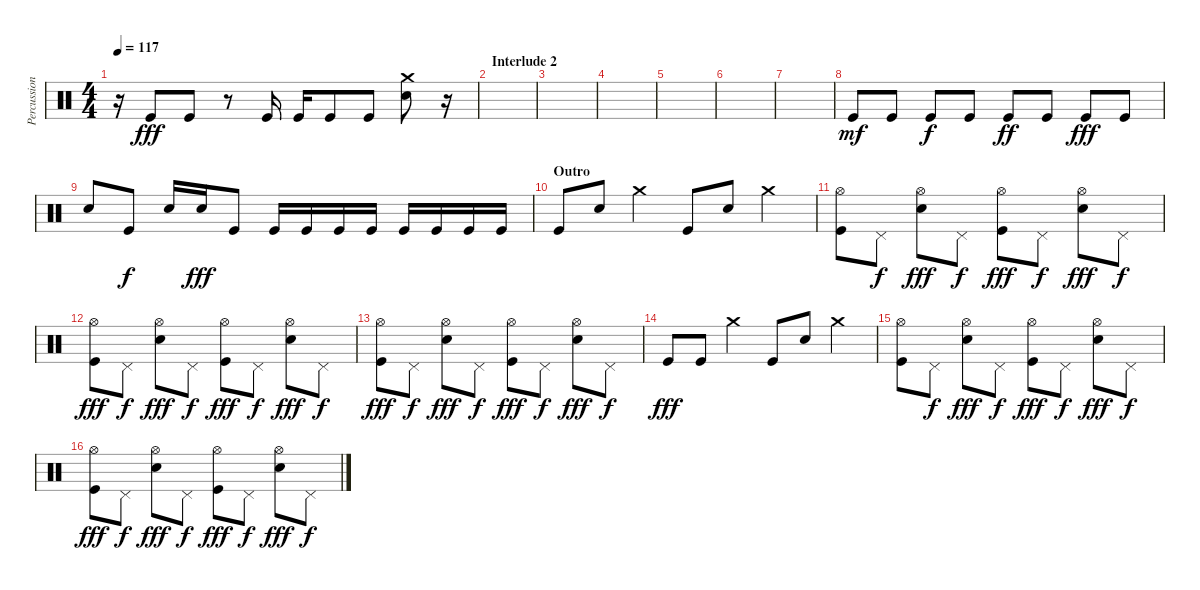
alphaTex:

\track ("Percussion" "Percussion") {instrument percussion}
\staff {score}
\articulation defaults
\ts (4 4)
\tempo 117
\clef neutral
\ks c
r.16{dy fff} "Kick (hit)".8 "Kick (hit)".8 r.8 "Kick (hit)".16 "Kick (hit)".16 "Kick (hit)".8 "Kick (hit)".8 ("Crash medium (hit)" "Snare (hit) 2").8 r.16 |
\section ("" "Interlude 2")
|
|
|
|
|
|
"Kick (hit)".8{dy mf} "Kick (hit)".8 "Kick (hit)".8{dy f} "Kick (hit)".8 "Kick (hit)".8{dy ff} "Kick (hit)".8 "Kick (hit)".8{dy fff} "Kick (hit)".8 |
"Snare (hit) 2".8 "Kick (hit)".8{dy f} "Snare (hit) 2".16 "Snare (hit) 2".16{dy fff} "Kick (hit)".8 "Kick (hit)".16 "Kick (hit)".16 "Kick (hit)".16 "Kick (hit)".16 "Kick (hit)".16 "Kick (hit)".16 "Kick (hit)".16 "Kick (hit)".16 |
\section ("" "Outro")
"Kick (hit)".8 "Snare (hit) 2".8 "Crash medium (hit)".4 "Kick (hit)".8 "Snare (hit) 2".8 "Crash medium (hit)".4 |
("Kick (hit)" "Hi-Hat (open)").8 "Pedal Hi-Hat (hit)".8{dy f} ("Snare (hit) 2" "Hi-Hat (open)").8{dy fff} "Pedal Hi-Hat (hit)".8{dy f} ("Kick (hit)" "Hi-Hat (open)").8{dy fff} "Pedal Hi-Hat (hit)".8{dy f} ("Snare (hit) 2" "Hi-Hat (open)").8{dy fff} "Pedal Hi-Hat (hit)".8{dy f} |
("Kick (hit)" "Hi-Hat (open)").8{dy fff} "Pedal Hi-Hat (hit)".8{dy f} ("Snare (hit) 2" "Hi-Hat (open)").8{dy fff} "Pedal Hi-Hat (hit)".8{dy f} ("Kick (hit)" "Hi-Hat (open)").8{dy fff} "Pedal Hi-Hat (hit)".8{dy f} ("Snare (hit) 2" "Hi-Hat (open)").8{dy fff} "Pedal Hi-Hat (hit)".8{dy f} |
("Kick (hit)" "Hi-Hat (open)").8{dy fff} "Pedal Hi-Hat (hit)".8{dy f} ("Snare (hit) 2" "Hi-Hat (open)").8{dy fff} "Pedal Hi-Hat (hit)".8{dy f} ("Kick (hit)" "Hi-Hat (open)").8{dy fff} "Pedal Hi-Hat (hit)".8{dy f} ("Snare (hit) 2" "Hi-Hat (open)").8{dy fff} "Pedal Hi-Hat (hit)".8{dy f} |
"Kick (hit)".8{dy fff} "Kick (hit)".8 "Crash medium (hit)".4 "Kick (hit)".8 "Snare (hit) 2".8 "Crash medium (hit)".4 |
("Kick (hit)" "Hi-Hat (open)").8 "Pedal Hi-Hat (hit)".8{dy f} ("Snare (hit) 2" "Hi-Hat (open)").8{dy fff} "Pedal Hi-Hat (hit)".8{dy f} ("Kick (hit)" "Hi-Hat (open)").8{dy fff} "Pedal Hi-Hat (hit)".8{dy f} ("Snare (hit) 2" "Hi-Hat (open)").8{dy fff} "Pedal Hi-Hat (hit)".8{dy f} |
("Kick (hit)" "Hi-Hat (open)").8{dy fff} "Pedal Hi-Hat (hit)".8{dy f} ("Snare (hit) 2" "Hi-Hat (open)").8{dy fff} "Pedal Hi-Hat (hit)".8{dy f} ("Kick (hit)" "Hi-Hat (open)").8{dy fff} "Pedal Hi-Hat (hit)".8{dy f} ("Snare (hit) 2" "Hi-Hat (open)").8{dy fff} "Pedal Hi-Hat (hit)".8{dy f}
